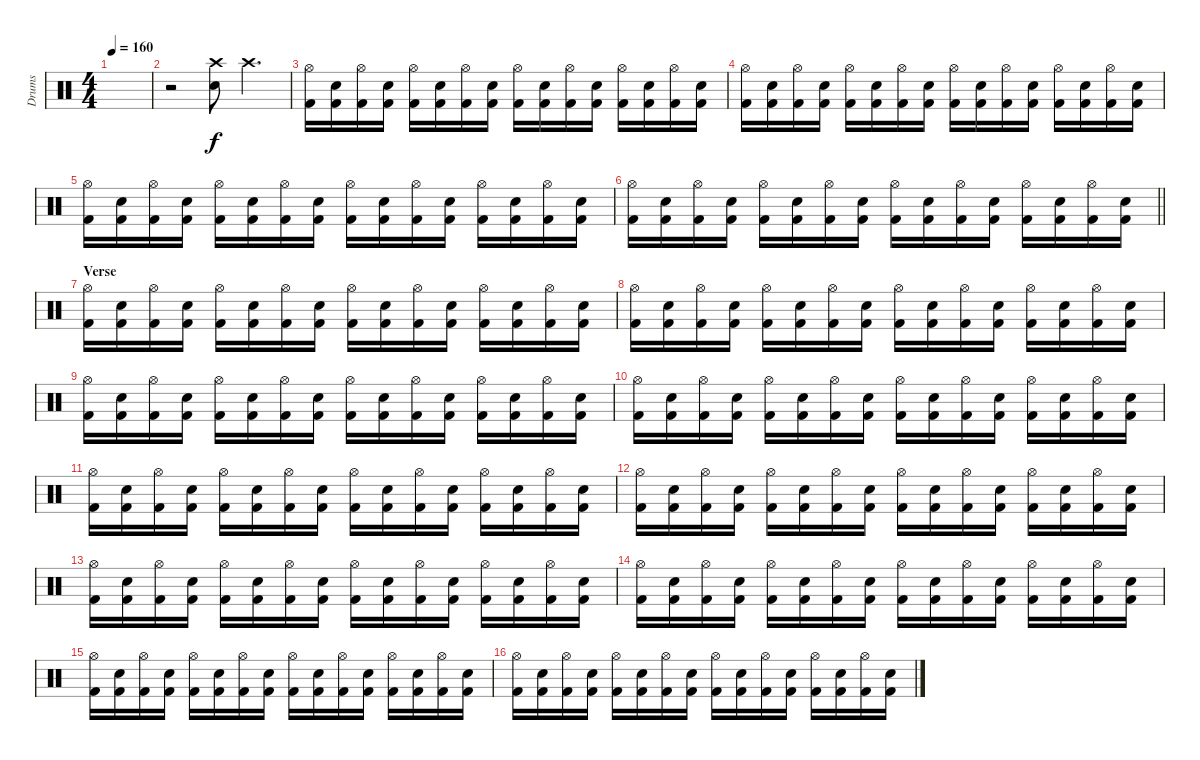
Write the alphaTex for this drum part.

\track ("Drums" "Drums") {instrument percussion}
\staff {score}
\articulation defaults
\ts (4 4)
\tempo 160
\clef neutral
\ks c
|
r.2 ("Crash high (hit)" "Snare (hit) 2").8 "Crash high (hit)".4{d} |
("Kick (hit) 2" "Hi-Hat (open)").16 ("Kick (hit) 2" "Snare (hit) 2").16 ("Kick (hit) 2" "Hi-Hat (open)").16 ("Kick (hit) 2" "Snare (hit) 2").16 ("Kick (hit) 2" "Hi-Hat (open)").16 ("Kick (hit) 2" "Snare (hit) 2").16 ("Kick (hit) 2" "Hi-Hat (open)").16 ("Kick (hit) 2" "Snare (hit) 2").16 ("Kick (hit) 2" "Hi-Hat (open)").16 ("Kick (hit) 2" "Snare (hit) 2").16 ("Kick (hit) 2" "Hi-Hat (open)").16 ("Kick (hit) 2" "Snare (hit) 2").16 ("Kick (hit) 2" "Hi-Hat (open)").16 ("Kick (hit) 2" "Snare (hit) 2").16 ("Kick (hit) 2" "Hi-Hat (open)").16 ("Kick (hit) 2" "Snare (hit) 2").16 |
("Kick (hit) 2" "Hi-Hat (open)").16 ("Kick (hit) 2" "Snare (hit) 2").16 ("Kick (hit) 2" "Hi-Hat (open)").16 ("Kick (hit) 2" "Snare (hit) 2").16 ("Kick (hit) 2" "Hi-Hat (open)").16 ("Kick (hit) 2" "Snare (hit) 2").16 ("Kick (hit) 2" "Hi-Hat (open)").16 ("Kick (hit) 2" "Snare (hit) 2").16 ("Kick (hit) 2" "Hi-Hat (open)").16 ("Kick (hit) 2" "Snare (hit) 2").16 ("Kick (hit) 2" "Hi-Hat (open)").16 ("Kick (hit) 2" "Snare (hit) 2").16 ("Kick (hit) 2" "Hi-Hat (open)").16 ("Kick (hit) 2" "Snare (hit) 2").16 ("Kick (hit) 2" "Hi-Hat (open)").16 ("Kick (hit) 2" "Snare (hit) 2").16 |
("Kick (hit) 2" "Hi-Hat (open)").16 ("Kick (hit) 2" "Snare (hit) 2").16 ("Kick (hit) 2" "Hi-Hat (open)").16 ("Kick (hit) 2" "Snare (hit) 2").16 ("Kick (hit) 2" "Hi-Hat (open)").16 ("Kick (hit) 2" "Snare (hit) 2").16 ("Kick (hit) 2" "Hi-Hat (open)").16 ("Kick (hit) 2" "Snare (hit) 2").16 ("Kick (hit) 2" "Hi-Hat (open)").16 ("Kick (hit) 2" "Snare (hit) 2").16 ("Kick (hit) 2" "Hi-Hat (open)").16 ("Kick (hit) 2" "Snare (hit) 2").16 ("Kick (hit) 2" "Hi-Hat (open)").16 ("Kick (hit) 2" "Snare (hit) 2").16 ("Kick (hit) 2" "Hi-Hat (open)").16 ("Kick (hit) 2" "Snare (hit) 2").16 |
\barLineRight lightlight
("Kick (hit) 2" "Hi-Hat (open)").16 ("Kick (hit) 2" "Snare (hit) 2").16 ("Kick (hit) 2" "Hi-Hat (open)").16 ("Kick (hit) 2" "Snare (hit) 2").16 ("Kick (hit) 2" "Hi-Hat (open)").16 ("Kick (hit) 2" "Snare (hit) 2").16 ("Kick (hit) 2" "Hi-Hat (open)").16 ("Kick (hit) 2" "Snare (hit) 2").16 ("Kick (hit) 2" "Hi-Hat (open)").16 ("Kick (hit) 2" "Snare (hit) 2").16 ("Kick (hit) 2" "Hi-Hat (open)").16 ("Kick (hit) 2" "Snare (hit) 2").16 ("Kick (hit) 2" "Hi-Hat (open)").16 ("Kick (hit) 2" "Snare (hit) 2").16 ("Kick (hit) 2" "Hi-Hat (open)").16 ("Kick (hit) 2" "Snare (hit) 2").16 |
\section ("" "Verse")
("Kick (hit) 2" "Hi-Hat (open)").16 ("Kick (hit) 2" "Snare (hit) 2").16 ("Kick (hit) 2" "Hi-Hat (open)").16 ("Kick (hit) 2" "Snare (hit) 2").16 ("Kick (hit) 2" "Hi-Hat (open)").16 ("Kick (hit) 2" "Snare (hit) 2").16 ("Kick (hit) 2" "Hi-Hat (open)").16 ("Kick (hit) 2" "Snare (hit) 2").16 ("Kick (hit) 2" "Hi-Hat (open)").16 ("Kick (hit) 2" "Snare (hit) 2").16 ("Kick (hit) 2" "Hi-Hat (open)").16 ("Kick (hit) 2" "Snare (hit) 2").16 ("Kick (hit) 2" "Hi-Hat (open)").16 ("Kick (hit) 2" "Snare (hit) 2").16 ("Kick (hit) 2" "Hi-Hat (open)").16 ("Kick (hit) 2" "Snare (hit) 2").16 |
("Kick (hit) 2" "Hi-Hat (open)").16 ("Kick (hit) 2" "Snare (hit) 2").16 ("Kick (hit) 2" "Hi-Hat (open)").16 ("Kick (hit) 2" "Snare (hit) 2").16 ("Kick (hit) 2" "Hi-Hat (open)").16 ("Kick (hit) 2" "Snare (hit) 2").16 ("Kick (hit) 2" "Hi-Hat (open)").16 ("Kick (hit) 2" "Snare (hit) 2").16 ("Kick (hit) 2" "Hi-Hat (open)").16 ("Kick (hit) 2" "Snare (hit) 2").16 ("Kick (hit) 2" "Hi-Hat (open)").16 ("Kick (hit) 2" "Snare (hit) 2").16 ("Kick (hit) 2" "Hi-Hat (open)").16 ("Kick (hit) 2" "Snare (hit) 2").16 ("Kick (hit) 2" "Hi-Hat (open)").16 ("Kick (hit) 2" "Snare (hit) 2").16 |
("Kick (hit) 2" "Hi-Hat (open)").16 ("Kick (hit) 2" "Snare (hit) 2").16 ("Kick (hit) 2" "Hi-Hat (open)").16 ("Kick (hit) 2" "Snare (hit) 2").16 ("Kick (hit) 2" "Hi-Hat (open)").16 ("Kick (hit) 2" "Snare (hit) 2").16 ("Kick (hit) 2" "Hi-Hat (open)").16 ("Kick (hit) 2" "Snare (hit) 2").16 ("Kick (hit) 2" "Hi-Hat (open)").16 ("Kick (hit) 2" "Snare (hit) 2").16 ("Kick (hit) 2" "Hi-Hat (open)").16 ("Kick (hit) 2" "Snare (hit) 2").16 ("Kick (hit) 2" "Hi-Hat (open)").16 ("Kick (hit) 2" "Snare (hit) 2").16 ("Kick (hit) 2" "Hi-Hat (open)").16 ("Kick (hit) 2" "Snare (hit) 2").16 |
("Kick (hit) 2" "Hi-Hat (open)").16 ("Kick (hit) 2" "Snare (hit) 2").16 ("Kick (hit) 2" "Hi-Hat (open)").16 ("Kick (hit) 2" "Snare (hit) 2").16 ("Kick (hit) 2" "Hi-Hat (open)").16 ("Kick (hit) 2" "Snare (hit) 2").16 ("Kick (hit) 2" "Hi-Hat (open)").16 ("Kick (hit) 2" "Snare (hit) 2").16 ("Kick (hit) 2" "Hi-Hat (open)").16 ("Kick (hit) 2" "Snare (hit) 2").16 ("Kick (hit) 2" "Hi-Hat (open)").16 ("Kick (hit) 2" "Snare (hit) 2").16 ("Kick (hit) 2" "Hi-Hat (open)").16 ("Kick (hit) 2" "Snare (hit) 2").16 ("Kick (hit) 2" "Hi-Hat (open)").16 ("Kick (hit) 2" "Snare (hit) 2").16 |
("Kick (hit) 2" "Hi-Hat (open)").16 ("Kick (hit) 2" "Snare (hit) 2").16 ("Kick (hit) 2" "Hi-Hat (open)").16 ("Kick (hit) 2" "Snare (hit) 2").16 ("Kick (hit) 2" "Hi-Hat (open)").16 ("Kick (hit) 2" "Snare (hit) 2").16 ("Kick (hit) 2" "Hi-Hat (open)").16 ("Kick (hit) 2" "Snare (hit) 2").16 ("Kick (hit) 2" "Hi-Hat (open)").16 ("Kick (hit) 2" "Snare (hit) 2").16 ("Kick (hit) 2" "Hi-Hat (open)").16 ("Kick (hit) 2" "Snare (hit) 2").16 ("Kick (hit) 2" "Hi-Hat (open)").16 ("Kick (hit) 2" "Snare (hit) 2").16 ("Kick (hit) 2" "Hi-Hat (open)").16 ("Kick (hit) 2" "Snare (hit) 2").16 |
("Kick (hit) 2" "Hi-Hat (open)").16 ("Kick (hit) 2" "Snare (hit) 2").16 ("Kick (hit) 2" "Hi-Hat (open)").16 ("Kick (hit) 2" "Snare (hit) 2").16 ("Kick (hit) 2" "Hi-Hat (open)").16 ("Kick (hit) 2" "Snare (hit) 2").16 ("Kick (hit) 2" "Hi-Hat (open)").16 ("Kick (hit) 2" "Snare (hit) 2").16 ("Kick (hit) 2" "Hi-Hat (open)").16 ("Kick (hit) 2" "Snare (hit) 2").16 ("Kick (hit) 2" "Hi-Hat (open)").16 ("Kick (hit) 2" "Snare (hit) 2").16 ("Kick (hit) 2" "Hi-Hat (open)").16 ("Kick (hit) 2" "Snare (hit) 2").16 ("Kick (hit) 2" "Hi-Hat (open)").16 ("Kick (hit) 2" "Snare (hit) 2").16 |
("Kick (hit) 2" "Hi-Hat (open)").16 ("Kick (hit) 2" "Snare (hit) 2").16 ("Kick (hit) 2" "Hi-Hat (open)").16 ("Kick (hit) 2" "Snare (hit) 2").16 ("Kick (hit) 2" "Hi-Hat (open)").16 ("Kick (hit) 2" "Snare (hit) 2").16 ("Kick (hit) 2" "Hi-Hat (open)").16 ("Kick (hit) 2" "Snare (hit) 2").16 ("Kick (hit) 2" "Hi-Hat (open)").16 ("Kick (hit) 2" "Snare (hit) 2").16 ("Kick (hit) 2" "Hi-Hat (open)").16 ("Kick (hit) 2" "Snare (hit) 2").16 ("Kick (hit) 2" "Hi-Hat (open)").16 ("Kick (hit) 2" "Snare (hit) 2").16 ("Kick (hit) 2" "Hi-Hat (open)").16 ("Kick (hit) 2" "Snare (hit) 2").16 |
("Kick (hit) 2" "Hi-Hat (open)").16 ("Kick (hit) 2" "Snare (hit) 2").16 ("Kick (hit) 2" "Hi-Hat (open)").16 ("Kick (hit) 2" "Snare (hit) 2").16 ("Kick (hit) 2" "Hi-Hat (open)").16 ("Kick (hit) 2" "Snare (hit) 2").16 ("Kick (hit) 2" "Hi-Hat (open)").16 ("Kick (hit) 2" "Snare (hit) 2").16 ("Kick (hit) 2" "Hi-Hat (open)").16 ("Kick (hit) 2" "Snare (hit) 2").16 ("Kick (hit) 2" "Hi-Hat (open)").16 ("Kick (hit) 2" "Snare (hit) 2").16 ("Kick (hit) 2" "Hi-Hat (open)").16 ("Kick (hit) 2" "Snare (hit) 2").16 ("Kick (hit) 2" "Hi-Hat (open)").16 ("Kick (hit) 2" "Snare (hit) 2").16 |
("Kick (hit) 2" "Hi-Hat (open)").16 ("Kick (hit) 2" "Snare (hit) 2").16 ("Kick (hit) 2" "Hi-Hat (open)").16 ("Kick (hit) 2" "Snare (hit) 2").16 ("Kick (hit) 2" "Hi-Hat (open)").16 ("Kick (hit) 2" "Snare (hit) 2").16 ("Kick (hit) 2" "Hi-Hat (open)").16 ("Kick (hit) 2" "Snare (hit) 2").16 ("Kick (hit) 2" "Hi-Hat (open)").16 ("Kick (hit) 2" "Snare (hit) 2").16 ("Kick (hit) 2" "Hi-Hat (open)").16 ("Kick (hit) 2" "Snare (hit) 2").16 ("Kick (hit) 2" "Hi-Hat (open)").16 ("Kick (hit) 2" "Snare (hit) 2").16 ("Kick (hit) 2" "Hi-Hat (open)").16 ("Kick (hit) 2" "Snare (hit) 2").16 |
("Kick (hit) 2" "Hi-Hat (open)").16 ("Kick (hit) 2" "Snare (hit) 2").16 ("Kick (hit) 2" "Hi-Hat (open)").16 ("Kick (hit) 2" "Snare (hit) 2").16 ("Kick (hit) 2" "Hi-Hat (open)").16 ("Kick (hit) 2" "Snare (hit) 2").16 ("Kick (hit) 2" "Hi-Hat (open)").16 ("Kick (hit) 2" "Snare (hit) 2").16 ("Kick (hit) 2" "Hi-Hat (open)").16 ("Kick (hit) 2" "Snare (hit) 2").16 ("Kick (hit) 2" "Hi-Hat (open)").16 ("Kick (hit) 2" "Snare (hit) 2").16 ("Kick (hit) 2" "Hi-Hat (open)").16 ("Kick (hit) 2" "Snare (hit) 2").16 ("Kick (hit) 2" "Hi-Hat (open)").16 ("Kick (hit) 2" "Snare (hit) 2").16
